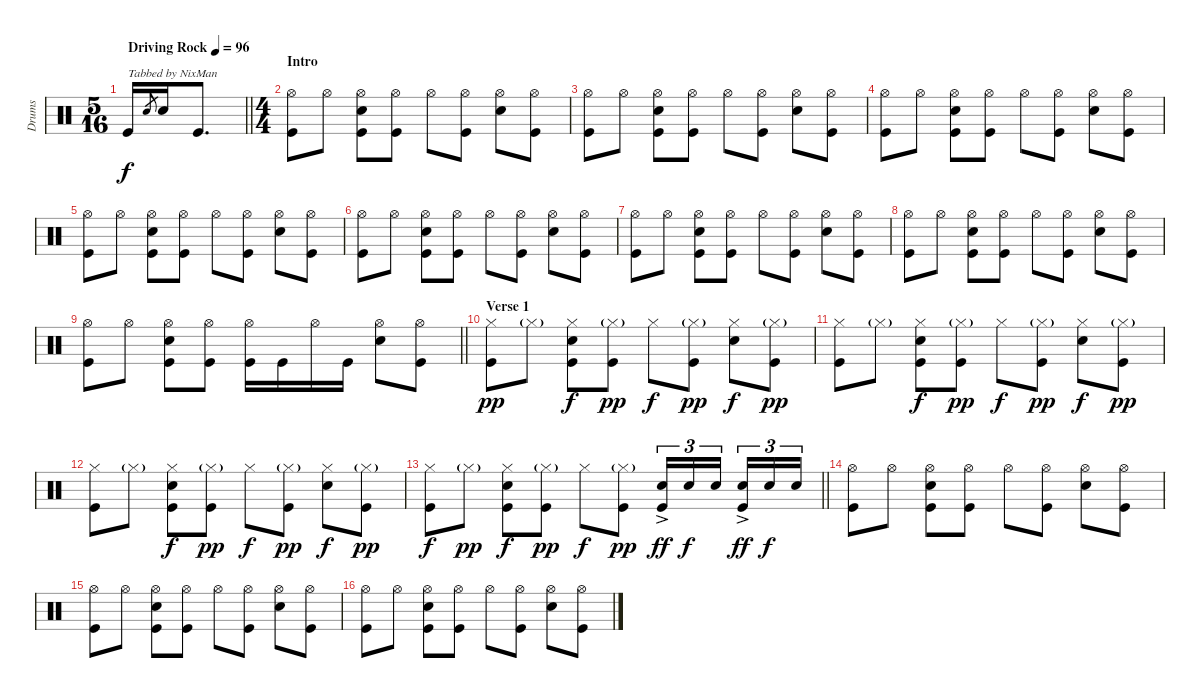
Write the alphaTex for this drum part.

\track ("Drums" "Drums") {instrument percussion}
\staff {score}
\articulation defaults
\ts (5 16)
\tempo (96 "Driving Rock")
\clef neutral
\barLineRight lightlight
\ks c "Kick (hit)".16{txt "Tabbed by NixMan" dy f} "Snare (hit) 2".8{gr} "Snare (hit) 2".16 "Kick (hit)".8{d}
|
\ts (4 4)
\section ("" "Intro")
("Hi-Hat (open)" "Kick (hit)").8 "Hi-Hat (open)".8 ("Snare (hit) 2" "Hi-Hat (open)" "Kick (hit)").8 ("Hi-Hat (open)" "Kick (hit)").8 "Hi-Hat (open)".8 ("Hi-Hat (open)" "Kick (hit)").8 ("Snare (hit) 2" "Hi-Hat (open)").8 ("Hi-Hat (open)" "Kick (hit)").8 |
("Hi-Hat (open)" "Kick (hit)").8 "Hi-Hat (open)".8 ("Snare (hit) 2" "Hi-Hat (open)" "Kick (hit)").8 ("Hi-Hat (open)" "Kick (hit)").8 "Hi-Hat (open)".8 ("Hi-Hat (open)" "Kick (hit)").8 ("Snare (hit) 2" "Hi-Hat (open)").8 ("Hi-Hat (open)" "Kick (hit)").8 |
("Hi-Hat (open)" "Kick (hit)").8 "Hi-Hat (open)".8 ("Snare (hit) 2" "Hi-Hat (open)" "Kick (hit)").8 ("Hi-Hat (open)" "Kick (hit)").8 "Hi-Hat (open)".8 ("Hi-Hat (open)" "Kick (hit)").8 ("Snare (hit) 2" "Hi-Hat (open)").8 ("Hi-Hat (open)" "Kick (hit)").8 |
("Hi-Hat (open)" "Kick (hit)").8 "Hi-Hat (open)".8 ("Snare (hit) 2" "Hi-Hat (open)" "Kick (hit)").8 ("Hi-Hat (open)" "Kick (hit)").8 "Hi-Hat (open)".8 ("Hi-Hat (open)" "Kick (hit)").8 ("Snare (hit) 2" "Hi-Hat (open)").8 ("Hi-Hat (open)" "Kick (hit)").8 |
("Hi-Hat (open)" "Kick (hit)").8 "Hi-Hat (open)".8 ("Snare (hit) 2" "Hi-Hat (open)" "Kick (hit)").8 ("Hi-Hat (open)" "Kick (hit)").8 "Hi-Hat (open)".8 ("Hi-Hat (open)" "Kick (hit)").8 ("Snare (hit) 2" "Hi-Hat (open)").8 ("Hi-Hat (open)" "Kick (hit)").8 |
("Hi-Hat (open)" "Kick (hit)").8 "Hi-Hat (open)".8 ("Snare (hit) 2" "Hi-Hat (open)" "Kick (hit)").8 ("Hi-Hat (open)" "Kick (hit)").8 "Hi-Hat (open)".8 ("Hi-Hat (open)" "Kick (hit)").8 ("Snare (hit) 2" "Hi-Hat (open)").8 ("Hi-Hat (open)" "Kick (hit)").8 |
("Hi-Hat (open)" "Kick (hit)").8 "Hi-Hat (open)".8 ("Snare (hit) 2" "Hi-Hat (open)" "Kick (hit)").8 ("Hi-Hat (open)" "Kick (hit)").8 "Hi-Hat (open)".8 ("Hi-Hat (open)" "Kick (hit)").8 ("Snare (hit) 2" "Hi-Hat (open)").8 ("Hi-Hat (open)" "Kick (hit)").8 |
\barLineRight lightlight
("Hi-Hat (open)" "Kick (hit)").8 "Hi-Hat (open)".8 ("Snare (hit) 2" "Hi-Hat (open)" "Kick (hit)").8 ("Hi-Hat (open)" "Kick (hit)").8 ("Hi-Hat (open)" "Kick (hit)").16 "Kick (hit)".16 "Hi-Hat (open)".16 "Kick (hit)".16 ("Snare (hit) 2" "Hi-Hat (open)").8 ("Hi-Hat (open)" "Kick (hit)").8 |
\section ("" "Verse 1")
("Hi-Hat (closed)" "Kick (hit)").8{dy pp} "Hi-Hat (closed)"{g}.8 ("Snare (hit) 2" "Hi-Hat (closed)" "Kick (hit)").8{dy f} ("Hi-Hat (closed)"{g} "Kick (hit)").8{dy pp} "Hi-Hat (closed)".8{dy f} ("Hi-Hat (closed)"{g} "Kick (hit)").8{dy pp} ("Snare (hit) 2" "Hi-Hat (closed)").8{dy f} ("Hi-Hat (closed)"{g} "Kick (hit)").8{dy pp} |
("Hi-Hat (closed)" "Kick (hit)").8 "Hi-Hat (closed)"{g}.8 ("Snare (hit) 2" "Hi-Hat (closed)" "Kick (hit)").8{dy f} ("Hi-Hat (closed)"{g} "Kick (hit)").8{dy pp} "Hi-Hat (closed)".8{dy f} ("Hi-Hat (closed)"{g} "Kick (hit)").8{dy pp} ("Snare (hit) 2" "Hi-Hat (closed)").8{dy f} ("Hi-Hat (closed)"{g} "Kick (hit)").8{dy pp} |
("Hi-Hat (closed)" "Kick (hit)").8 "Hi-Hat (closed)"{g}.8 ("Snare (hit) 2" "Hi-Hat (closed)" "Kick (hit)").8{dy f} ("Hi-Hat (closed)"{g} "Kick (hit)").8{dy pp} "Hi-Hat (closed)".8{dy f} ("Hi-Hat (closed)"{g} "Kick (hit)").8{dy pp} ("Snare (hit) 2" "Hi-Hat (closed)").8{dy f} ("Hi-Hat (closed)"{g} "Kick (hit)").8{dy pp} |
\barLineRight lightlight
("Hi-Hat (closed)" "Kick (hit)").8{dy f} "Hi-Hat (closed)"{g}.8{dy pp} ("Snare (hit) 2" "Hi-Hat (closed)" "Kick (hit)").8{dy f} ("Hi-Hat (closed)"{g} "Kick (hit)").8{dy pp} "Hi-Hat (closed)".8{dy f} ("Hi-Hat (closed)"{g} "Kick (hit)").8{dy pp} ("Snare (hit) 2"{ac} "Kick (hit)").16{tu (3 2) dy ff} "Snare (hit) 2".16{tu (3 2) dy f} "Snare (hit) 2".16{tu (3 2) beam splitsecondary} ("Snare (hit) 2"{ac} "Kick (hit)").16{tu (3 2) dy ff} "Snare (hit) 2".16{tu (3 2) dy f} "Snare (hit) 2".16{tu (3 2)} |
\section ("" "")
("Hi-Hat (open)" "Kick (hit)").8 "Hi-Hat (open)".8 ("Snare (hit) 2" "Hi-Hat (open)" "Kick (hit)").8 ("Hi-Hat (open)" "Kick (hit)").8 "Hi-Hat (open)".8 ("Hi-Hat (open)" "Kick (hit)").8 ("Snare (hit) 2" "Hi-Hat (open)").8 ("Hi-Hat (open)" "Kick (hit)").8 |
("Hi-Hat (open)" "Kick (hit)").8 "Hi-Hat (open)".8 ("Snare (hit) 2" "Hi-Hat (open)" "Kick (hit)").8 ("Hi-Hat (open)" "Kick (hit)").8 "Hi-Hat (open)".8 ("Hi-Hat (open)" "Kick (hit)").8 ("Snare (hit) 2" "Hi-Hat (open)").8 ("Hi-Hat (open)" "Kick (hit)").8 |
("Hi-Hat (open)" "Kick (hit)").8 "Hi-Hat (open)".8 ("Snare (hit) 2" "Hi-Hat (open)" "Kick (hit)").8 ("Hi-Hat (open)" "Kick (hit)").8 "Hi-Hat (open)".8 ("Hi-Hat (open)" "Kick (hit)").8 ("Snare (hit) 2" "Hi-Hat (open)").8 ("Hi-Hat (open)" "Kick (hit)").8
